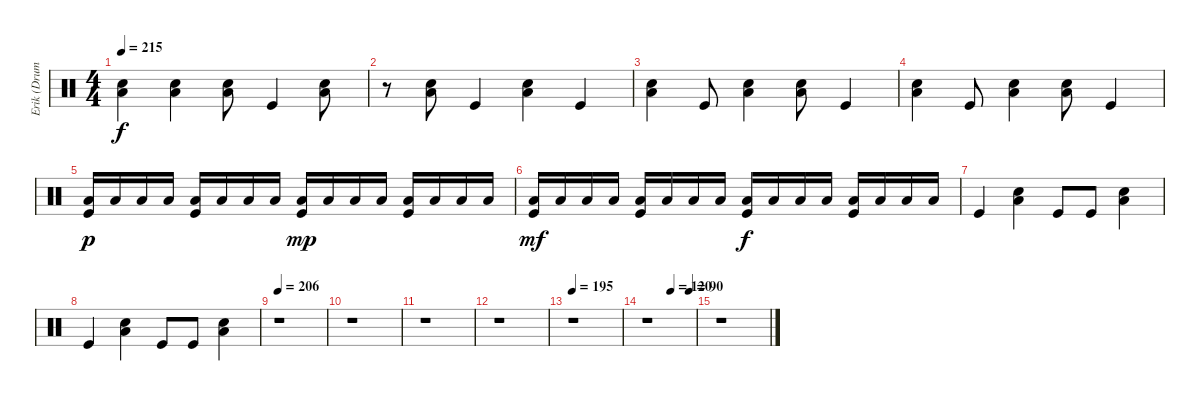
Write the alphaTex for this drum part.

\track ("Erik (Drums)" "Erik (Drum") {instrument percussion}
\staff {score}
\articulation defaults
\ts (4 4)
\tempo 215
\clef neutral
\ks c
("Low Tom (hit)" "Snare (hit) 2").4{dy f} ("Low Tom (hit)" "Snare (hit) 2").4 ("Low Tom (hit)" "Snare (hit) 2").8 "Kick (hit)".4 ("Low Tom (hit)" "Snare (hit) 2").8 |
r.8 ("Low Tom (hit)" "Snare (hit) 2").8 "Kick (hit)".4 ("Low Tom (hit)" "Snare (hit) 2").4 "Kick (hit)".4 |
("Low Tom (hit)" "Snare (hit) 2").4 "Kick (hit)".8 ("Low Tom (hit)" "Snare (hit) 2").4 ("Low Tom (hit)" "Snare (hit) 2").8 "Kick (hit)".4 |
("Low Tom (hit)" "Snare (hit) 2").4 "Kick (hit)".8 ("Low Tom (hit)" "Snare (hit) 2").4 ("Low Tom (hit)" "Snare (hit) 2").8 "Kick (hit)".4 |
("Low Tom (hit)" "Kick (hit)").16{dy p} "Low Tom (hit)".16 "Low Tom (hit)".16 "Low Tom (hit)".16 ("Low Tom (hit)" "Kick (hit)").16 "Low Tom (hit)".16 "Low Tom (hit)".16 "Low Tom (hit)".16 ("Low Tom (hit)" "Kick (hit)").16{dy mp} "Low Tom (hit)".16 "Low Tom (hit)".16 "Low Tom (hit)".16 ("Low Tom (hit)" "Kick (hit)").16 "Low Tom (hit)".16 "Low Tom (hit)".16 "Low Tom (hit)".16 |
("Low Tom (hit)" "Kick (hit)").16{dy mf} "Low Tom (hit)".16 "Low Tom (hit)".16 "Low Tom (hit)".16 ("Low Tom (hit)" "Kick (hit)").16 "Low Tom (hit)".16 "Low Tom (hit)".16 "Low Tom (hit)".16 ("Low Tom (hit)" "Kick (hit)").16{dy f} "Low Tom (hit)".16 "Low Tom (hit)".16 "Low Tom (hit)".16 ("Low Tom (hit)" "Kick (hit)").16 "Low Tom (hit)".16 "Low Tom (hit)".16 "Low Tom (hit)".16 |
"Kick (hit)".4 ("Low Tom (hit)" "Snare (hit) 2").4 "Kick (hit)".8 "Kick (hit)".8 ("Low Tom (hit)" "Snare (hit) 2").4 |
"Kick (hit)".4 ("Low Tom (hit)" "Snare (hit) 2").4 "Kick (hit)".8 "Kick (hit)".8 ("Low Tom (hit)" "Snare (hit) 2").4 |
\tempo 206
r.1 |
r.1 |
r.1 |
r.1 |
\tempo 195
r.1 |
\tempo (120 0.5)
\tempo (90 0.875)
r.1 |
r.1
